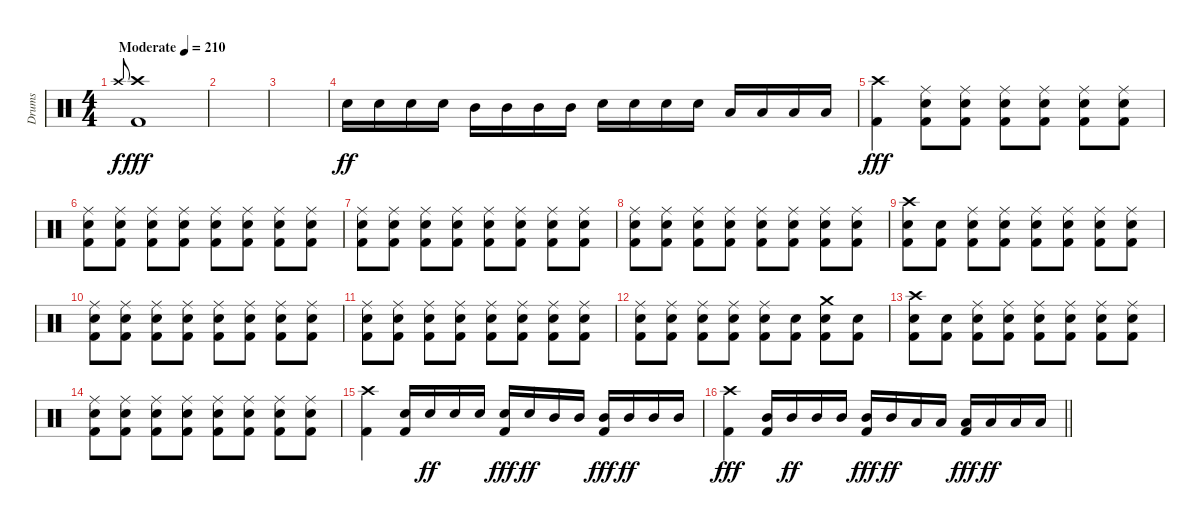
\track ("Drums" "Drums") {instrument percussion}
\staff {score}
\articulation defaults
\ts (4 4)
\tempo (210 "Moderate")
\clef neutral
\ks c "Crash high (hit)"{x}.8{gr onbeat dy f}
("Crash high (hit)" "Kick (hit) 2").1{dy fff} |
|
|
"Snare (hit) 2".16{dy ff} "Snare (hit) 2".16 "Snare (hit) 2".16 "Snare (hit) 2".16 "Mid Tom (hit)".16 "Mid Tom (hit)".16 "Mid Tom (hit)".16 "Mid Tom (hit)".16 "Snare (hit) 2".16 "Snare (hit) 2".16 "Snare (hit) 2".16 "Snare (hit) 2".16 "Low Tom (hit)".16 "Low Tom (hit)".16 "Low Tom (hit)".16 "Low Tom (hit)".16 |
("Crash high (hit)" "Kick (hit) 2").4{dy fff} ("Ride (middle)" "Snare (hit) 2" "Kick (hit) 2").8 ("Ride (middle)" "Snare (hit) 2" "Kick (hit) 2").8 ("Ride (middle)" "Snare (hit) 2" "Kick (hit) 2").8 ("Ride (middle)" "Snare (hit) 2" "Kick (hit) 2").8 ("Ride (middle)" "Snare (hit) 2" "Kick (hit) 2").8 ("Ride (middle)" "Snare (hit) 2" "Kick (hit) 2").8 |
("Ride (middle)" "Snare (hit) 2" "Kick (hit) 2").8 ("Ride (middle)" "Snare (hit) 2" "Kick (hit) 2").8 ("Ride (middle)" "Snare (hit) 2" "Kick (hit) 2").8 ("Ride (middle)" "Snare (hit) 2" "Kick (hit) 2").8 ("Ride (middle)" "Snare (hit) 2" "Kick (hit) 2").8 ("Ride (middle)" "Snare (hit) 2" "Kick (hit) 2").8 ("Ride (middle)" "Snare (hit) 2" "Kick (hit) 2").8 ("Ride (middle)" "Snare (hit) 2" "Kick (hit) 2").8 |
("Ride (middle)" "Snare (hit) 2" "Kick (hit) 2").8 ("Ride (middle)" "Snare (hit) 2" "Kick (hit) 2").8 ("Ride (middle)" "Snare (hit) 2" "Kick (hit) 2").8 ("Ride (middle)" "Snare (hit) 2" "Kick (hit) 2").8 ("Ride (middle)" "Snare (hit) 2" "Kick (hit) 2").8 ("Ride (middle)" "Snare (hit) 2" "Kick (hit) 2").8 ("Ride (middle)" "Snare (hit) 2" "Kick (hit) 2").8 ("Ride (middle)" "Snare (hit) 2" "Kick (hit) 2").8 |
("Ride (middle)" "Snare (hit) 2" "Kick (hit) 2").8 ("Ride (middle)" "Snare (hit) 2" "Kick (hit) 2").8 ("Ride (middle)" "Snare (hit) 2" "Kick (hit) 2").8 ("Ride (middle)" "Snare (hit) 2" "Kick (hit) 2").8 ("Ride (middle)" "Snare (hit) 2" "Kick (hit) 2").8 ("Ride (middle)" "Snare (hit) 2" "Kick (hit) 2").8 ("Ride (middle)" "Snare (hit) 2" "Kick (hit) 2").8 ("Ride (middle)" "Snare (hit) 2" "Kick (hit) 2").8 |
("Crash high (hit)" "Snare (hit) 2" "Kick (hit) 2").8 ("Snare (hit) 2" "Kick (hit) 2").8 ("Ride (middle)" "Snare (hit) 2" "Kick (hit) 2").8 ("Ride (middle)" "Snare (hit) 2" "Kick (hit) 2").8 ("Ride (middle)" "Snare (hit) 2" "Kick (hit) 2").8 ("Ride (middle)" "Snare (hit) 2" "Kick (hit) 2").8 ("Ride (middle)" "Snare (hit) 2" "Kick (hit) 2").8 ("Ride (middle)" "Snare (hit) 2" "Kick (hit) 2").8 |
("Ride (middle)" "Snare (hit) 2" "Kick (hit) 2").8 ("Ride (middle)" "Snare (hit) 2" "Kick (hit) 2").8 ("Ride (middle)" "Snare (hit) 2" "Kick (hit) 2").8 ("Ride (middle)" "Snare (hit) 2" "Kick (hit) 2").8 ("Ride (middle)" "Snare (hit) 2" "Kick (hit) 2").8 ("Ride (middle)" "Snare (hit) 2" "Kick (hit) 2").8 ("Ride (middle)" "Snare (hit) 2" "Kick (hit) 2").8 ("Ride (middle)" "Snare (hit) 2" "Kick (hit) 2").8 |
("Ride (middle)" "Snare (hit) 2" "Kick (hit) 2").8 ("Ride (middle)" "Snare (hit) 2" "Kick (hit) 2").8 ("Ride (middle)" "Snare (hit) 2" "Kick (hit) 2").8 ("Ride (middle)" "Snare (hit) 2" "Kick (hit) 2").8 ("Ride (middle)" "Snare (hit) 2" "Kick (hit) 2").8 ("Ride (middle)" "Snare (hit) 2" "Kick (hit) 2").8 ("Ride (middle)" "Snare (hit) 2" "Kick (hit) 2").8 ("Ride (middle)" "Snare (hit) 2" "Kick (hit) 2").8 |
("Ride (middle)" "Snare (hit) 2" "Kick (hit) 2").8 ("Ride (middle)" "Snare (hit) 2" "Kick (hit) 2").8 ("Ride (middle)" "Snare (hit) 2" "Kick (hit) 2").8 ("Ride (middle)" "Snare (hit) 2" "Kick (hit) 2").8 ("Ride (middle)" "Snare (hit) 2" "Kick (hit) 2").8 ("Snare (hit) 2" "Kick (hit) 2").8 ("Crash medium (hit)" "Snare (hit) 2" "Kick (hit) 2").8 ("Snare (hit) 2" "Kick (hit) 2").8 |
("Crash high (hit)" "Snare (hit) 2" "Kick (hit) 2").8 ("Snare (hit) 2" "Kick (hit) 2").8 ("Ride (middle)" "Snare (hit) 2" "Kick (hit) 2").8 ("Ride (middle)" "Snare (hit) 2" "Kick (hit) 2").8 ("Ride (middle)" "Snare (hit) 2" "Kick (hit) 2").8 ("Ride (middle)" "Snare (hit) 2" "Kick (hit) 2").8 ("Ride (middle)" "Snare (hit) 2" "Kick (hit) 2").8 ("Ride (middle)" "Snare (hit) 2" "Kick (hit) 2").8 |
("Ride (middle)" "Snare (hit) 2" "Kick (hit) 2").8 ("Ride (middle)" "Snare (hit) 2" "Kick (hit) 2").8 ("Ride (middle)" "Snare (hit) 2" "Kick (hit) 2").8 ("Ride (middle)" "Snare (hit) 2" "Kick (hit) 2").8 ("Ride (middle)" "Snare (hit) 2" "Kick (hit) 2").8 ("Ride (middle)" "Snare (hit) 2" "Kick (hit) 2").8 ("Ride (middle)" "Snare (hit) 2" "Kick (hit) 2").8 ("Ride (middle)" "Snare (hit) 2" "Kick (hit) 2").8 |
("Crash high (hit)" "Kick (hit) 2").4 ("Snare (hit) 2" "Kick (hit) 2").16 "Snare (hit) 2".16{dy ff} "Snare (hit) 2".16 "Snare (hit) 2".16 ("Snare (hit) 2" "Kick (hit) 2").16{dy fff} "Snare (hit) 2".16{dy ff} "Mid Tom (hit)".16 "Mid Tom (hit)".16 ("Mid Tom (hit)" "Kick (hit) 2").16{dy fff} "Mid Tom (hit)".16{dy ff} "Mid Tom (hit)".16 "Mid Tom (hit)".16 |
\barLineRight lightlight
("Crash high (hit)" "Kick (hit) 2").4{dy fff} ("Mid Tom (hit)" "Kick (hit) 2").16 "Mid Tom (hit)".16{dy ff} "Mid Tom (hit)".16 "Mid Tom (hit)".16 ("Mid Tom (hit)" "Kick (hit) 2").16{dy fff} "Mid Tom (hit)".16{dy ff} "Low Tom (hit)".16 "Low Tom (hit)".16 ("Low Tom (hit)" "Kick (hit) 2").16{dy fff} "Low Tom (hit)".16{dy ff} "Low Tom (hit)".16 "Low Tom (hit)".16
